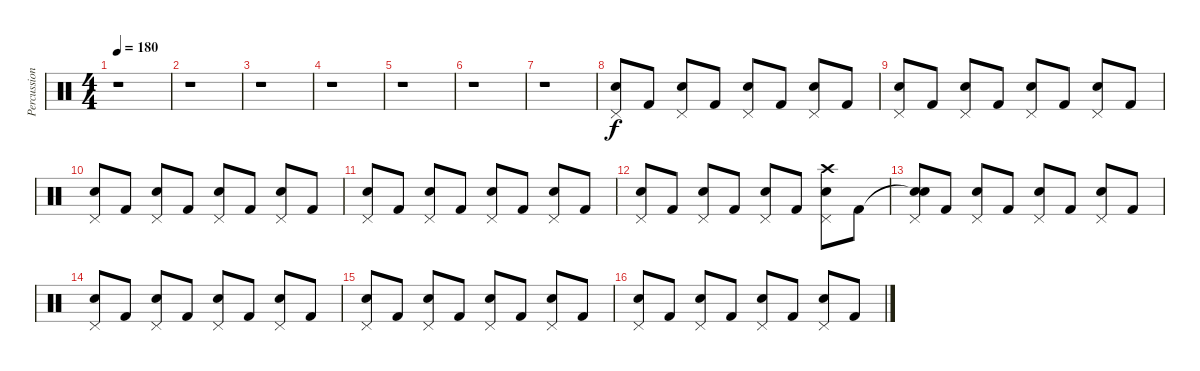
\track ("Percussion" "Percussion") {instrument percussion}
\staff {score}
\articulation defaults
\ts (4 4)
\tempo 180
\clef neutral
\ks c
r.1{dy f} |
r.1 |
r.1 |
r.1 |
r.1 |
r.1 |
r.1 |
("Pedal Hi-Hat (hit)" "Electric Snare (hit)").8 "Kick (hit) 2".8 ("Pedal Hi-Hat (hit)" "Electric Snare (hit)").8 "Kick (hit) 2".8 ("Pedal Hi-Hat (hit)" "Electric Snare (hit)").8 "Kick (hit) 2".8 ("Pedal Hi-Hat (hit)" "Electric Snare (hit)").8 "Kick (hit) 2".8 |
("Pedal Hi-Hat (hit)" "Electric Snare (hit)").8 "Kick (hit) 2".8 ("Pedal Hi-Hat (hit)" "Electric Snare (hit)").8 "Kick (hit) 2".8 ("Pedal Hi-Hat (hit)" "Electric Snare (hit)").8 "Kick (hit) 2".8 ("Pedal Hi-Hat (hit)" "Electric Snare (hit)").8 "Kick (hit) 2".8 |
("Pedal Hi-Hat (hit)" "Electric Snare (hit)").8 "Kick (hit) 2".8 ("Pedal Hi-Hat (hit)" "Electric Snare (hit)").8 "Kick (hit) 2".8 ("Pedal Hi-Hat (hit)" "Electric Snare (hit)").8 "Kick (hit) 2".8 ("Pedal Hi-Hat (hit)" "Electric Snare (hit)").8 "Kick (hit) 2".8 |
("Pedal Hi-Hat (hit)" "Electric Snare (hit)").8 "Kick (hit) 2".8 ("Pedal Hi-Hat (hit)" "Electric Snare (hit)").8 "Kick (hit) 2".8 ("Pedal Hi-Hat (hit)" "Electric Snare (hit)").8 "Kick (hit) 2".8 ("Pedal Hi-Hat (hit)" "Electric Snare (hit)").8 "Kick (hit) 2".8 |
("Pedal Hi-Hat (hit)" "Electric Snare (hit)").8 "Kick (hit) 2".8 ("Pedal Hi-Hat (hit)" "Electric Snare (hit)").8 "Kick (hit) 2".8 ("Pedal Hi-Hat (hit)" "Electric Snare (hit)").8 "Kick (hit) 2".8 ("Crash high (hit)" "Pedal Hi-Hat (hit)" "Electric Snare (hit)").8 "Kick (hit) 2".8 |
("Snare (hit)"{t} "Pedal Hi-Hat (hit)" "Electric Snare (hit)").8 "Kick (hit) 2".8 ("Pedal Hi-Hat (hit)" "Electric Snare (hit)").8 "Kick (hit) 2".8 ("Pedal Hi-Hat (hit)" "Electric Snare (hit)").8 "Kick (hit) 2".8 ("Pedal Hi-Hat (hit)" "Electric Snare (hit)").8 "Kick (hit) 2".8 |
("Pedal Hi-Hat (hit)" "Electric Snare (hit)").8 "Kick (hit) 2".8 ("Pedal Hi-Hat (hit)" "Electric Snare (hit)").8 "Kick (hit) 2".8 ("Pedal Hi-Hat (hit)" "Electric Snare (hit)").8 "Kick (hit) 2".8 ("Pedal Hi-Hat (hit)" "Electric Snare (hit)").8 "Kick (hit) 2".8 |
("Pedal Hi-Hat (hit)" "Electric Snare (hit)").8 "Kick (hit) 2".8 ("Pedal Hi-Hat (hit)" "Electric Snare (hit)").8 "Kick (hit) 2".8 ("Pedal Hi-Hat (hit)" "Electric Snare (hit)").8 "Kick (hit) 2".8 ("Pedal Hi-Hat (hit)" "Electric Snare (hit)").8 "Kick (hit) 2".8 |
("Pedal Hi-Hat (hit)" "Electric Snare (hit)").8 "Kick (hit) 2".8 ("Pedal Hi-Hat (hit)" "Electric Snare (hit)").8 "Kick (hit) 2".8 ("Pedal Hi-Hat (hit)" "Electric Snare (hit)").8 "Kick (hit) 2".8 ("Pedal Hi-Hat (hit)" "Electric Snare (hit)").8 "Kick (hit) 2".8
